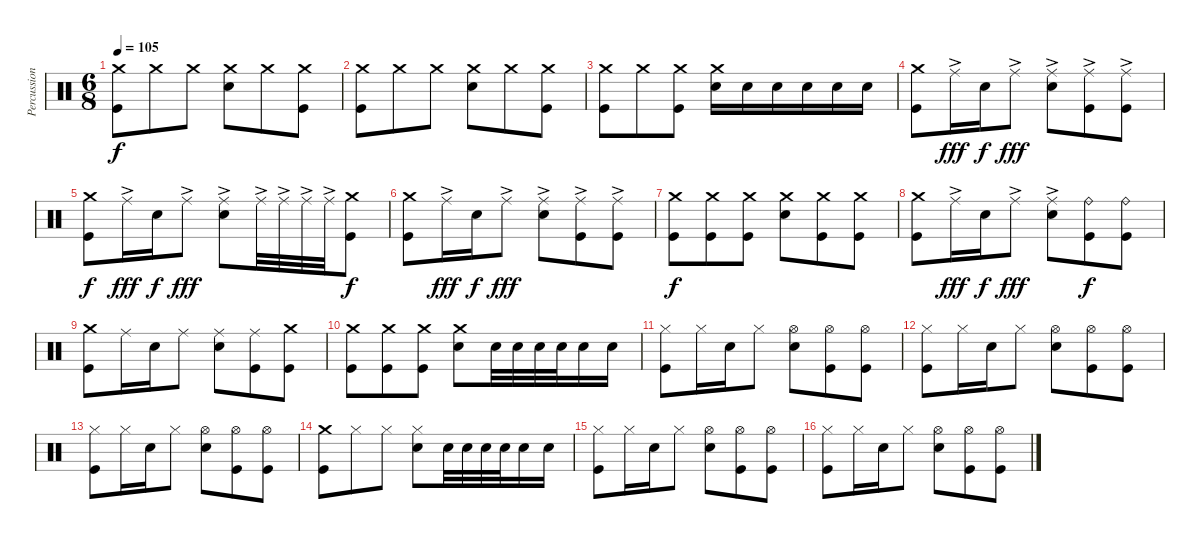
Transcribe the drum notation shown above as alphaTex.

\track ("Percussion" "Percussion") {instrument percussion}
\staff {score}
\articulation defaults
\ts (6 8)
\tempo 105
\clef neutral
\ks c
("Crash medium (hit)" "Kick (hit)").8{dy f} "Crash medium (hit)".8 "Crash medium (hit)".8 ("Crash medium (hit)" "Electric Snare (hit)").8 "Crash medium (hit)".8 ("Crash medium (hit)" "Kick (hit)").8 |
("Crash medium (hit)" "Kick (hit)").8 "Crash medium (hit)".8 "Crash medium (hit)".8 ("Crash medium (hit)" "Electric Snare (hit)").8 "Crash medium (hit)".8 ("Crash medium (hit)" "Kick (hit)").8 |
("Crash medium (hit)" "Kick (hit)").8 "Crash medium (hit)".8 ("Crash medium (hit)" "Kick (hit)").8 ("Crash medium (hit)" "Electric Snare (hit)").16 "Electric Snare (hit)".16 "Electric Snare (hit)".16 "Electric Snare (hit)".16 "Electric Snare (hit)".16 "Electric Snare (hit)".16 |
("Crash medium (hit)" "Kick (hit)").8 "Ride (middle)"{ac}.16{dy fff} "Electric Snare (hit)".16{dy f} "Ride (middle)"{ac}.8{dy fff} ("Ride (middle)"{ac} "Electric Snare (hit)").8 ("Ride (middle)"{ac} "Kick (hit)").8 ("Ride (middle)"{ac} "Kick (hit)").8 |
("Crash medium (hit)" "Kick (hit)").8{dy f} "Ride (middle)"{ac}.16{dy fff} "Electric Snare (hit)".16{dy f} "Ride (middle)"{ac}.8{dy fff} ("Ride (middle)"{ac} "Electric Snare (hit)").8 "Ride (middle)"{ac}.32 "Ride (middle)"{ac}.32 "Ride (middle)"{ac}.32 "Ride (middle)"{ac}.32 ("Crash medium (hit)" "Kick (hit)").8{dy f} |
("Crash medium (hit)" "Kick (hit)").8 "Ride (middle)"{ac}.16{dy fff} "Electric Snare (hit)".16{dy f} "Ride (middle)"{ac}.8{dy fff} ("Ride (middle)"{ac} "Electric Snare (hit)").8 ("Ride (middle)"{ac} "Kick (hit)").8 ("Ride (middle)"{ac} "Kick (hit)").8 |
("Crash medium (hit)" "Kick (hit)").8{dy f} ("Crash medium (hit)" "Kick (hit)").8 ("Crash medium (hit)" "Kick (hit)").8 ("Crash medium (hit)" "Electric Snare (hit)").8 ("Crash medium (hit)" "Kick (hit)").8 ("Crash medium (hit)" "Kick (hit)").8 |
("Crash medium (hit)" "Kick (hit)").8 "Ride (middle)"{ac}.16{dy fff} "Electric Snare (hit)".16{dy f} "Ride (middle)"{ac}.8{dy fff} ("Ride (middle)"{ac} "Electric Snare (hit)").8 ("Ride (bell)" "Kick (hit)").8{dy f} ("Ride (bell)" "Kick (hit)").8 |
("Crash medium (hit)" "Kick (hit)").8 "Ride (middle)".16 "Electric Snare (hit)".16 "Ride (middle)".8 ("Ride (middle)" "Electric Snare (hit)").8 ("Ride (middle)" "Kick (hit)").8 ("Crash medium (hit)" "Kick (hit)").8 |
("Crash medium (hit)" "Kick (hit)").8 ("Crash medium (hit)" "Kick (hit)").8 ("Crash medium (hit)" "Kick (hit)").8 ("Crash medium (hit)" "Electric Snare (hit)").8 "Electric Snare (hit)".32 "Electric Snare (hit)".32 "Electric Snare (hit)".32 "Electric Snare (hit)".32 "Electric Snare (hit)".16 "Electric Snare (hit)".16 |
("Hi-Hat (closed)" "Kick (hit)").8 "Hi-Hat (closed)".16 "Electric Snare (hit)".16 "Hi-Hat (closed)".8 ("Hi-Hat (open)" "Electric Snare (hit)").8 ("Hi-Hat (open)" "Kick (hit)").8 ("Hi-Hat (open)" "Kick (hit)").8 |
("Hi-Hat (closed)" "Kick (hit)").8 "Hi-Hat (closed)".16 "Electric Snare (hit)".16 "Hi-Hat (closed)".8 ("Hi-Hat (open)" "Electric Snare (hit)").8 ("Hi-Hat (open)" "Kick (hit)").8 ("Hi-Hat (open)" "Kick (hit)").8 |
("Hi-Hat (closed)" "Kick (hit)").8 "Hi-Hat (closed)".16 "Electric Snare (hit)".16 "Hi-Hat (closed)".8 ("Hi-Hat (open)" "Electric Snare (hit)").8 ("Hi-Hat (open)" "Kick (hit)").8 ("Hi-Hat (open)" "Kick (hit)").8 |
("Crash medium (hit)" "Kick (hit)").8 "Hi-Hat (closed)".8 "Hi-Hat (closed)".8 ("Hi-Hat (closed)" "Electric Snare (hit)").8 "Electric Snare (hit)".32 "Electric Snare (hit)".32 "Electric Snare (hit)".32 "Electric Snare (hit)".32 "Electric Snare (hit)".16 "Electric Snare (hit)".16 |
("Hi-Hat (closed)" "Kick (hit)").8 "Hi-Hat (closed)".16 "Electric Snare (hit)".16 "Hi-Hat (closed)".8 ("Hi-Hat (open)" "Electric Snare (hit)").8 ("Hi-Hat (open)" "Kick (hit)").8 ("Hi-Hat (open)" "Kick (hit)").8 |
("Hi-Hat (closed)" "Kick (hit)").8 "Hi-Hat (closed)".16 "Electric Snare (hit)".16 "Hi-Hat (closed)".8 ("Hi-Hat (open)" "Electric Snare (hit)").8 ("Hi-Hat (open)" "Kick (hit)").8 ("Hi-Hat (open)" "Kick (hit)").8
